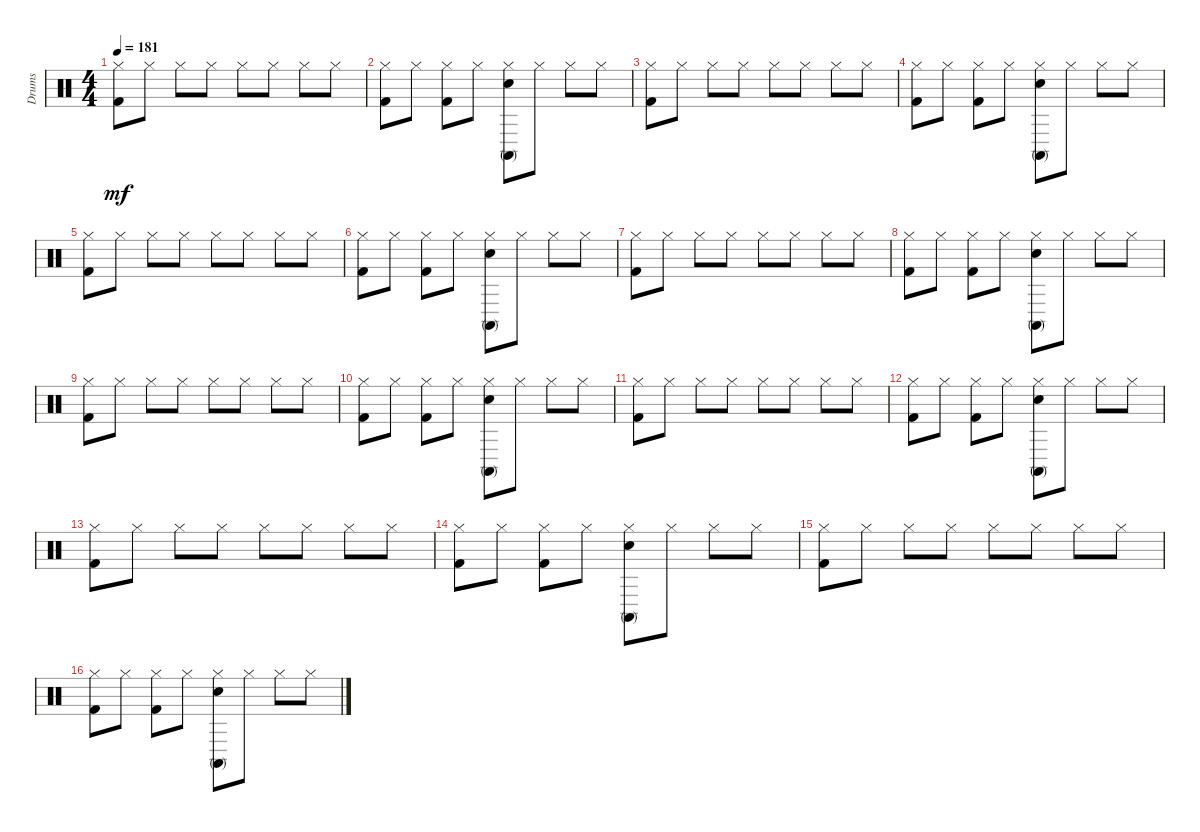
\track ("Drums" "Drums") {instrument percussion}
\staff {score}
\articulation defaults
\ts (4 4)
\tempo 181
\clef neutral
\ks c
("Hi-Hat (closed)" "Kick (hit) 2").8{dy mf} "Hi-Hat (closed)".8 "Hi-Hat (closed)".8 "Hi-Hat (closed)".8 "Hi-Hat (closed)".8 "Hi-Hat (closed)".8 "Hi-Hat (closed)".8 "Hi-Hat (closed)".8 |
("Hi-Hat (closed)" "Kick (hit) 2").8 "Hi-Hat (closed)".8 ("Hi-Hat (closed)" "Kick (hit) 2").8 "Hi-Hat (closed)".8 ("Hi-Hat (closed)" "Conga high (mute)" "Electric Snare (hit)").8 "Hi-Hat (closed)".8 "Hi-Hat (closed)".8 "Hi-Hat (closed)".8 |
("Hi-Hat (closed)" "Kick (hit) 2").8 "Hi-Hat (closed)".8 "Hi-Hat (closed)".8 "Hi-Hat (closed)".8 "Hi-Hat (closed)".8 "Hi-Hat (closed)".8 "Hi-Hat (closed)".8 "Hi-Hat (closed)".8 |
("Hi-Hat (closed)" "Kick (hit) 2").8 "Hi-Hat (closed)".8 ("Hi-Hat (closed)" "Kick (hit) 2").8 "Hi-Hat (closed)".8 ("Hi-Hat (closed)" "Conga high (mute)" "Electric Snare (hit)").8 "Hi-Hat (closed)".8 "Hi-Hat (closed)".8 "Hi-Hat (closed)".8 |
("Hi-Hat (closed)" "Kick (hit) 2").8 "Hi-Hat (closed)".8 "Hi-Hat (closed)".8 "Hi-Hat (closed)".8 "Hi-Hat (closed)".8 "Hi-Hat (closed)".8 "Hi-Hat (closed)".8 "Hi-Hat (closed)".8 |
("Hi-Hat (closed)" "Kick (hit) 2").8 "Hi-Hat (closed)".8 ("Hi-Hat (closed)" "Kick (hit) 2").8 "Hi-Hat (closed)".8 ("Hi-Hat (closed)" "Conga high (mute)" "Electric Snare (hit)").8 "Hi-Hat (closed)".8 "Hi-Hat (closed)".8 "Hi-Hat (closed)".8 |
("Hi-Hat (closed)" "Kick (hit) 2").8 "Hi-Hat (closed)".8 "Hi-Hat (closed)".8 "Hi-Hat (closed)".8 "Hi-Hat (closed)".8 "Hi-Hat (closed)".8 "Hi-Hat (closed)".8 "Hi-Hat (closed)".8 |
("Hi-Hat (closed)" "Kick (hit) 2").8 "Hi-Hat (closed)".8 ("Hi-Hat (closed)" "Kick (hit) 2").8 "Hi-Hat (closed)".8 ("Hi-Hat (closed)" "Conga high (mute)" "Electric Snare (hit)").8 "Hi-Hat (closed)".8 "Hi-Hat (closed)".8 "Hi-Hat (closed)".8 |
("Hi-Hat (closed)" "Kick (hit) 2").8 "Hi-Hat (closed)".8 "Hi-Hat (closed)".8 "Hi-Hat (closed)".8 "Hi-Hat (closed)".8 "Hi-Hat (closed)".8 "Hi-Hat (closed)".8 "Hi-Hat (closed)".8 |
("Hi-Hat (closed)" "Kick (hit) 2").8 "Hi-Hat (closed)".8 ("Hi-Hat (closed)" "Kick (hit) 2").8 "Hi-Hat (closed)".8 ("Hi-Hat (closed)" "Conga high (mute)" "Electric Snare (hit)").8 "Hi-Hat (closed)".8 "Hi-Hat (closed)".8 "Hi-Hat (closed)".8 |
("Hi-Hat (closed)" "Kick (hit) 2").8 "Hi-Hat (closed)".8 "Hi-Hat (closed)".8 "Hi-Hat (closed)".8 "Hi-Hat (closed)".8 "Hi-Hat (closed)".8 "Hi-Hat (closed)".8 "Hi-Hat (closed)".8 |
("Hi-Hat (closed)" "Kick (hit) 2").8 "Hi-Hat (closed)".8 ("Hi-Hat (closed)" "Kick (hit) 2").8 "Hi-Hat (closed)".8 ("Hi-Hat (closed)" "Conga high (mute)" "Electric Snare (hit)").8 "Hi-Hat (closed)".8 "Hi-Hat (closed)".8 "Hi-Hat (closed)".8 |
("Hi-Hat (closed)" "Kick (hit) 2").8 "Hi-Hat (closed)".8 "Hi-Hat (closed)".8 "Hi-Hat (closed)".8 "Hi-Hat (closed)".8 "Hi-Hat (closed)".8 "Hi-Hat (closed)".8 "Hi-Hat (closed)".8 |
("Hi-Hat (closed)" "Kick (hit) 2").8 "Hi-Hat (closed)".8 ("Hi-Hat (closed)" "Kick (hit) 2").8 "Hi-Hat (closed)".8 ("Hi-Hat (closed)" "Conga high (mute)" "Electric Snare (hit)").8 "Hi-Hat (closed)".8 "Hi-Hat (closed)".8 "Hi-Hat (closed)".8 |
("Hi-Hat (closed)" "Kick (hit) 2").8 "Hi-Hat (closed)".8 "Hi-Hat (closed)".8 "Hi-Hat (closed)".8 "Hi-Hat (closed)".8 "Hi-Hat (closed)".8 "Hi-Hat (closed)".8 "Hi-Hat (closed)".8 |
("Hi-Hat (closed)" "Kick (hit) 2").8 "Hi-Hat (closed)".8 ("Hi-Hat (closed)" "Kick (hit) 2").8 "Hi-Hat (closed)".8 ("Hi-Hat (closed)" "Conga high (mute)" "Electric Snare (hit)").8 "Hi-Hat (closed)".8 "Hi-Hat (closed)".8 "Hi-Hat (closed)".8
